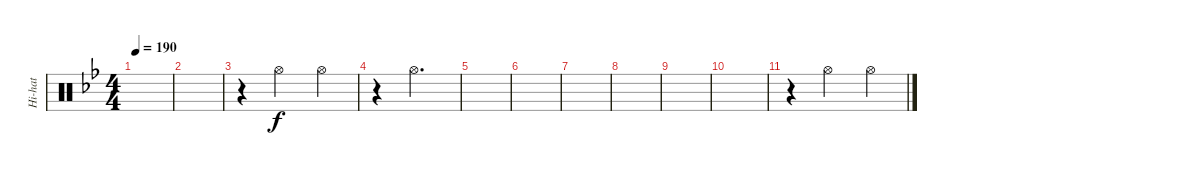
\track ("Hi-hat" "Hi-hat") {instrument percussion}
\staff {score}
\articulation defaults
\ts (4 4)
\tempo 190
\clef neutral
\ks bb
|
|
r.4 "Hi-Hat (open)".2 "Hi-Hat (open)".4 |
r.4 "Hi-Hat (open)".2{d} |
|
|
|
|
|
|
r.4 "Hi-Hat (open)".2 "Hi-Hat (open)".4
